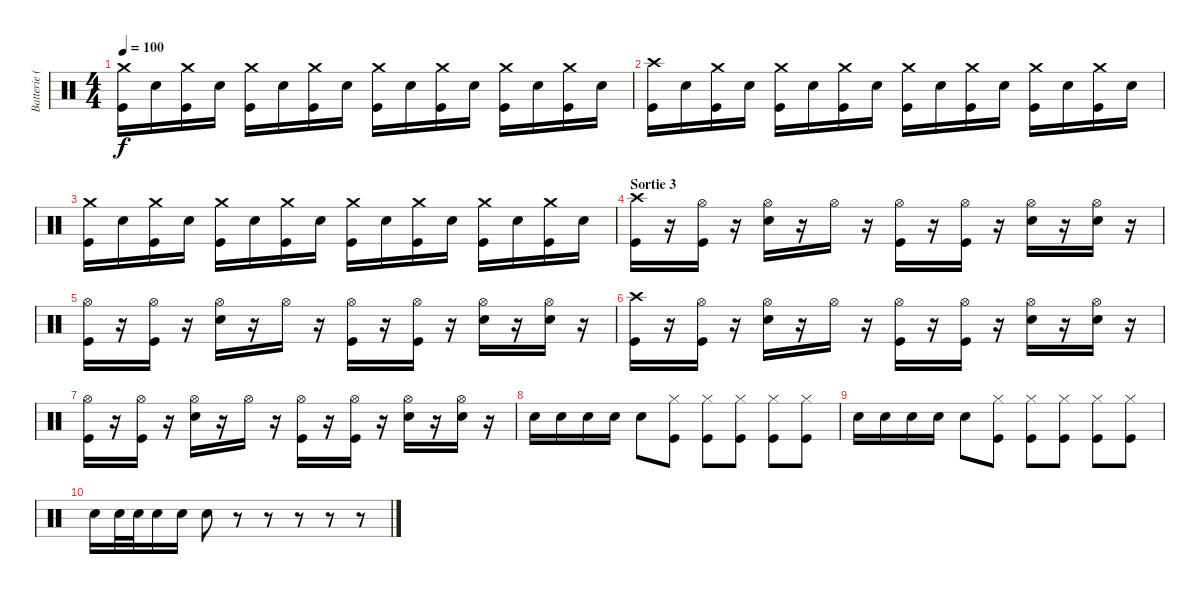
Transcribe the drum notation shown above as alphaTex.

\track ("Batterie (Julien)" "Batterie (") {instrument percussion}
\staff {score}
\articulation defaults
\ts (4 4)
\tempo 100
\clef neutral
\ks c
("Crash medium (hit)" "Kick (hit)").16{dy f} "Electric Snare (hit)".16 ("Crash medium (hit)" "Kick (hit)").16 "Electric Snare (hit)".16 ("Crash medium (hit)" "Kick (hit)").16 "Electric Snare (hit)".16 ("Crash medium (hit)" "Kick (hit)").16 "Electric Snare (hit)".16 ("Crash medium (hit)" "Kick (hit)").16 "Electric Snare (hit)".16 ("Crash medium (hit)" "Kick (hit)").16 "Electric Snare (hit)".16 ("Crash medium (hit)" "Kick (hit)").16 "Electric Snare (hit)".16 ("Crash medium (hit)" "Kick (hit)").16 "Electric Snare (hit)".16 |
("Crash high (hit)" "Kick (hit)").16 "Electric Snare (hit)".16 ("Crash medium (hit)" "Kick (hit)").16 "Electric Snare (hit)".16 ("Crash medium (hit)" "Kick (hit)").16 "Electric Snare (hit)".16 ("Crash medium (hit)" "Kick (hit)").16 "Electric Snare (hit)".16 ("Crash medium (hit)" "Kick (hit)").16 "Electric Snare (hit)".16 ("Crash medium (hit)" "Kick (hit)").16 "Electric Snare (hit)".16 ("Crash medium (hit)" "Kick (hit)").16 "Electric Snare (hit)".16 ("Crash medium (hit)" "Kick (hit)").16 "Electric Snare (hit)".16 |
("Crash medium (hit)" "Kick (hit)").16 "Electric Snare (hit)".16 ("Crash medium (hit)" "Kick (hit)").16 "Electric Snare (hit)".16 ("Crash medium (hit)" "Kick (hit)").16 "Electric Snare (hit)".16 ("Crash medium (hit)" "Kick (hit)").16 "Electric Snare (hit)".16 ("Crash medium (hit)" "Kick (hit)").16 "Electric Snare (hit)".16 ("Crash medium (hit)" "Kick (hit)").16 "Electric Snare (hit)".16 ("Crash medium (hit)" "Kick (hit)").16 "Electric Snare (hit)".16 ("Crash medium (hit)" "Kick (hit)").16 "Electric Snare (hit)".16 |
\section ("" "Sortie 3")
("Crash high (hit)" "Kick (hit)").16 r.16 ("Hi-Hat (open)" "Kick (hit)").16 r.16 ("Hi-Hat (open)" "Electric Snare (hit)").16 r.16 "Hi-Hat (open)".16 r.16 ("Hi-Hat (open)" "Kick (hit)").16 r.16 ("Hi-Hat (open)" "Kick (hit)").16 r.16 ("Hi-Hat (open)" "Electric Snare (hit)").16 r.16 ("Hi-Hat (open)" "Electric Snare (hit)").16 r.16 |
("Hi-Hat (open)" "Kick (hit)").16 r.16 ("Hi-Hat (open)" "Kick (hit)").16 r.16 ("Hi-Hat (open)" "Electric Snare (hit)").16 r.16 "Hi-Hat (open)".16 r.16 ("Hi-Hat (open)" "Kick (hit)").16 r.16 ("Hi-Hat (open)" "Kick (hit)").16 r.16 ("Hi-Hat (open)" "Electric Snare (hit)").16 r.16 ("Hi-Hat (open)" "Electric Snare (hit)").16 r.16 |
("Crash high (hit)" "Kick (hit)").16 r.16 ("Hi-Hat (open)" "Kick (hit)").16 r.16 ("Hi-Hat (open)" "Electric Snare (hit)").16 r.16 "Hi-Hat (open)".16 r.16 ("Hi-Hat (open)" "Kick (hit)").16 r.16 ("Hi-Hat (open)" "Kick (hit)").16 r.16 ("Hi-Hat (open)" "Electric Snare (hit)").16 r.16 ("Hi-Hat (open)" "Electric Snare (hit)").16 r.16 |
("Hi-Hat (open)" "Kick (hit)").16 r.16 ("Hi-Hat (open)" "Kick (hit)").16 r.16 ("Hi-Hat (open)" "Electric Snare (hit)").16 r.16 "Hi-Hat (open)".16 r.16 ("Hi-Hat (open)" "Kick (hit)").16 r.16 ("Hi-Hat (open)" "Kick (hit)").16 r.16 ("Hi-Hat (open)" "Electric Snare (hit)").16 r.16 ("Hi-Hat (open)" "Electric Snare (hit)").16 r.16 |
"Electric Snare (hit)".16 "Electric Snare (hit)".16 "Electric Snare (hit)".16 "Electric Snare (hit)".16 "Electric Snare (hit)".8 ("Hi-Hat (closed)" "Kick (hit)").8 ("Hi-Hat (closed)" "Kick (hit)").8 ("Hi-Hat (closed)" "Kick (hit)").8 ("Hi-Hat (closed)" "Kick (hit)").8 ("Hi-Hat (closed)" "Kick (hit)").8 |
"Electric Snare (hit)".16 "Electric Snare (hit)".16 "Electric Snare (hit)".16 "Electric Snare (hit)".16 "Electric Snare (hit)".8 ("Hi-Hat (closed)" "Kick (hit)").8 ("Hi-Hat (closed)" "Kick (hit)").8 ("Hi-Hat (closed)" "Kick (hit)").8 ("Hi-Hat (closed)" "Kick (hit)").8 ("Hi-Hat (closed)" "Kick (hit)").8 |
"Electric Snare (hit)".16 "Electric Snare (hit)".32 "Electric Snare (hit)".32 "Electric Snare (hit)".16 "Electric Snare (hit)".16 "Electric Snare (hit)".8 r.8 r.8 r.8 r.8 r.8
